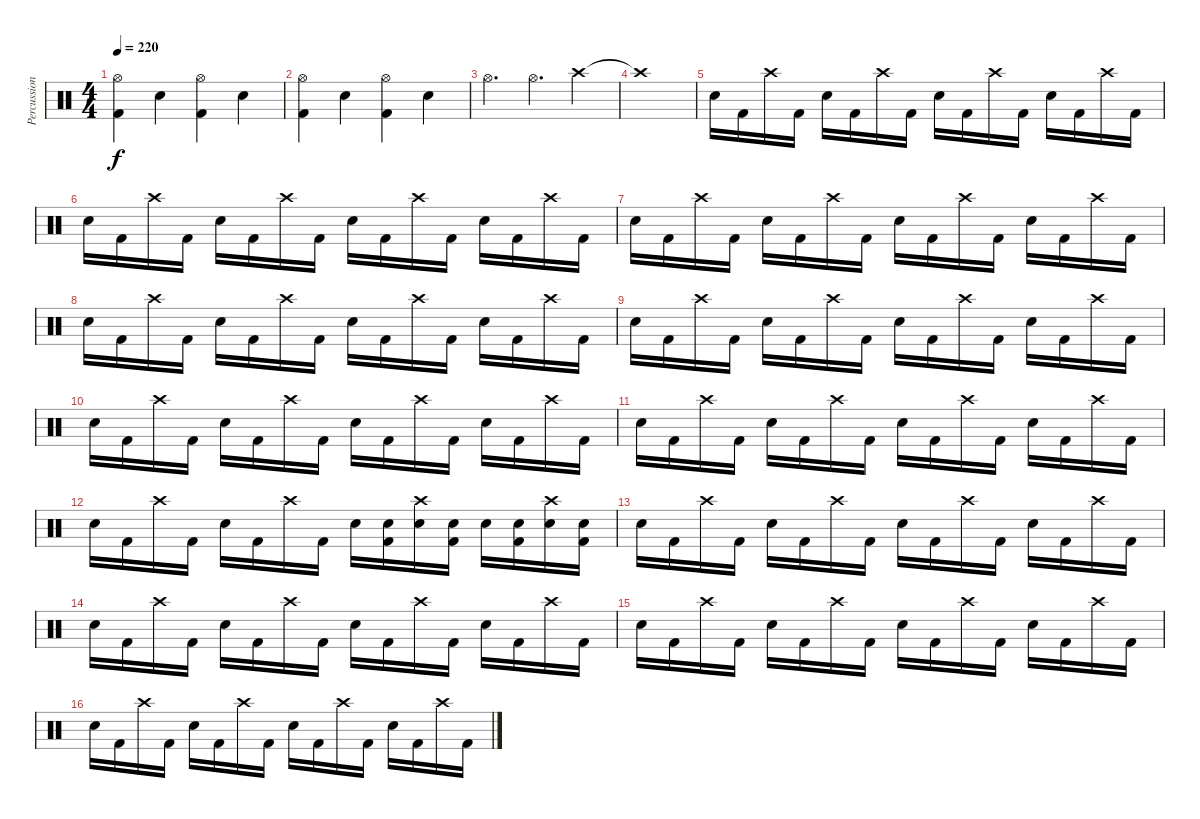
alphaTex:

\track ("Percussion" "Percussion") {instrument percussion}
\staff {score}
\articulation defaults
\ts (4 4)
\tempo 220
\clef neutral
\ks c
("Hi-Hat (open)" "Kick (hit) 2").4{dy f} "Electric Snare (hit)".4 ("Hi-Hat (open)" "Kick (hit) 2").4 "Electric Snare (hit)".4 |
("Hi-Hat (open)" "Kick (hit) 2").4 "Electric Snare (hit)".4 ("Hi-Hat (open)" "Kick (hit) 2").4 "Electric Snare (hit)".4 |
"Hi-Hat (open)".4{d} "Hi-Hat (open)".4{d} "Crash high (hit)".4 |
"Crash high (hit)"{t}.1 |
"Electric Snare (hit)".16 "Kick (hit) 2".16 "Crash high (hit)".16 "Kick (hit) 2".16 "Electric Snare (hit)".16 "Kick (hit) 2".16 "Crash high (hit)".16 "Kick (hit) 2".16 "Electric Snare (hit)".16 "Kick (hit) 2".16 "Crash high (hit)".16 "Kick (hit) 2".16 "Electric Snare (hit)".16 "Kick (hit) 2".16 "Crash high (hit)".16 "Kick (hit) 2".16 |
"Electric Snare (hit)".16 "Kick (hit) 2".16 "Crash high (hit)".16 "Kick (hit) 2".16 "Electric Snare (hit)".16 "Kick (hit) 2".16 "Crash high (hit)".16 "Kick (hit) 2".16 "Electric Snare (hit)".16 "Kick (hit) 2".16 "Crash high (hit)".16 "Kick (hit) 2".16 "Electric Snare (hit)".16 "Kick (hit) 2".16 "Crash high (hit)".16 "Kick (hit) 2".16 |
"Electric Snare (hit)".16 "Kick (hit) 2".16 "Crash high (hit)".16 "Kick (hit) 2".16 "Electric Snare (hit)".16 "Kick (hit) 2".16 "Crash high (hit)".16 "Kick (hit) 2".16 "Electric Snare (hit)".16 "Kick (hit) 2".16 "Crash high (hit)".16 "Kick (hit) 2".16 "Electric Snare (hit)".16 "Kick (hit) 2".16 "Crash high (hit)".16 "Kick (hit) 2".16 |
"Electric Snare (hit)".16 "Kick (hit) 2".16 "Crash high (hit)".16 "Kick (hit) 2".16 "Electric Snare (hit)".16 "Kick (hit) 2".16 "Crash high (hit)".16 "Kick (hit) 2".16 "Electric Snare (hit)".16 "Kick (hit) 2".16 "Crash high (hit)".16 "Kick (hit) 2".16 "Electric Snare (hit)".16 "Kick (hit) 2".16 "Crash high (hit)".16 "Kick (hit) 2".16 |
"Electric Snare (hit)".16 "Kick (hit) 2".16 "Crash high (hit)".16 "Kick (hit) 2".16 "Electric Snare (hit)".16 "Kick (hit) 2".16 "Crash high (hit)".16 "Kick (hit) 2".16 "Electric Snare (hit)".16 "Kick (hit) 2".16 "Crash high (hit)".16 "Kick (hit) 2".16 "Electric Snare (hit)".16 "Kick (hit) 2".16 "Crash high (hit)".16 "Kick (hit) 2".16 |
"Electric Snare (hit)".16 "Kick (hit) 2".16 "Crash high (hit)".16 "Kick (hit) 2".16 "Electric Snare (hit)".16 "Kick (hit) 2".16 "Crash high (hit)".16 "Kick (hit) 2".16 "Electric Snare (hit)".16 "Kick (hit) 2".16 "Crash high (hit)".16 "Kick (hit) 2".16 "Electric Snare (hit)".16 "Kick (hit) 2".16 "Crash high (hit)".16 "Kick (hit) 2".16 |
"Electric Snare (hit)".16 "Kick (hit) 2".16 "Crash high (hit)".16 "Kick (hit) 2".16 "Electric Snare (hit)".16 "Kick (hit) 2".16 "Crash high (hit)".16 "Kick (hit) 2".16 "Electric Snare (hit)".16 "Kick (hit) 2".16 "Crash high (hit)".16 "Kick (hit) 2".16 "Electric Snare (hit)".16 "Kick (hit) 2".16 "Crash high (hit)".16 "Kick (hit) 2".16 |
"Electric Snare (hit)".16 "Kick (hit) 2".16 "Crash high (hit)".16 "Kick (hit) 2".16 "Electric Snare (hit)".16 "Kick (hit) 2".16 "Crash high (hit)".16 "Kick (hit) 2".16 "Electric Snare (hit)".16 ("Electric Snare (hit)" "Kick (hit) 2").16 ("Crash high (hit)" "Electric Snare (hit)").16 ("Electric Snare (hit)" "Kick (hit) 2").16 "Electric Snare (hit)".16 ("Electric Snare (hit)" "Kick (hit) 2").16 ("Crash high (hit)" "Electric Snare (hit)").16 ("Electric Snare (hit)" "Kick (hit) 2").16 |
"Electric Snare (hit)".16 "Kick (hit) 2".16 "Crash high (hit)".16 "Kick (hit) 2".16 "Electric Snare (hit)".16 "Kick (hit) 2".16 "Crash high (hit)".16 "Kick (hit) 2".16 "Electric Snare (hit)".16 "Kick (hit) 2".16 "Crash high (hit)".16 "Kick (hit) 2".16 "Electric Snare (hit)".16 "Kick (hit) 2".16 "Crash high (hit)".16 "Kick (hit) 2".16 |
"Electric Snare (hit)".16 "Kick (hit) 2".16 "Crash high (hit)".16 "Kick (hit) 2".16 "Electric Snare (hit)".16 "Kick (hit) 2".16 "Crash high (hit)".16 "Kick (hit) 2".16 "Electric Snare (hit)".16 "Kick (hit) 2".16 "Crash high (hit)".16 "Kick (hit) 2".16 "Electric Snare (hit)".16 "Kick (hit) 2".16 "Crash high (hit)".16 "Kick (hit) 2".16 |
"Electric Snare (hit)".16 "Kick (hit) 2".16 "Crash high (hit)".16 "Kick (hit) 2".16 "Electric Snare (hit)".16 "Kick (hit) 2".16 "Crash high (hit)".16 "Kick (hit) 2".16 "Electric Snare (hit)".16 "Kick (hit) 2".16 "Crash high (hit)".16 "Kick (hit) 2".16 "Electric Snare (hit)".16 "Kick (hit) 2".16 "Crash high (hit)".16 "Kick (hit) 2".16 |
"Electric Snare (hit)".16 "Kick (hit) 2".16 "Crash high (hit)".16 "Kick (hit) 2".16 "Electric Snare (hit)".16 "Kick (hit) 2".16 "Crash high (hit)".16 "Kick (hit) 2".16 "Electric Snare (hit)".16 "Kick (hit) 2".16 "Crash high (hit)".16 "Kick (hit) 2".16 "Electric Snare (hit)".16 "Kick (hit) 2".16 "Crash high (hit)".16 "Kick (hit) 2".16
